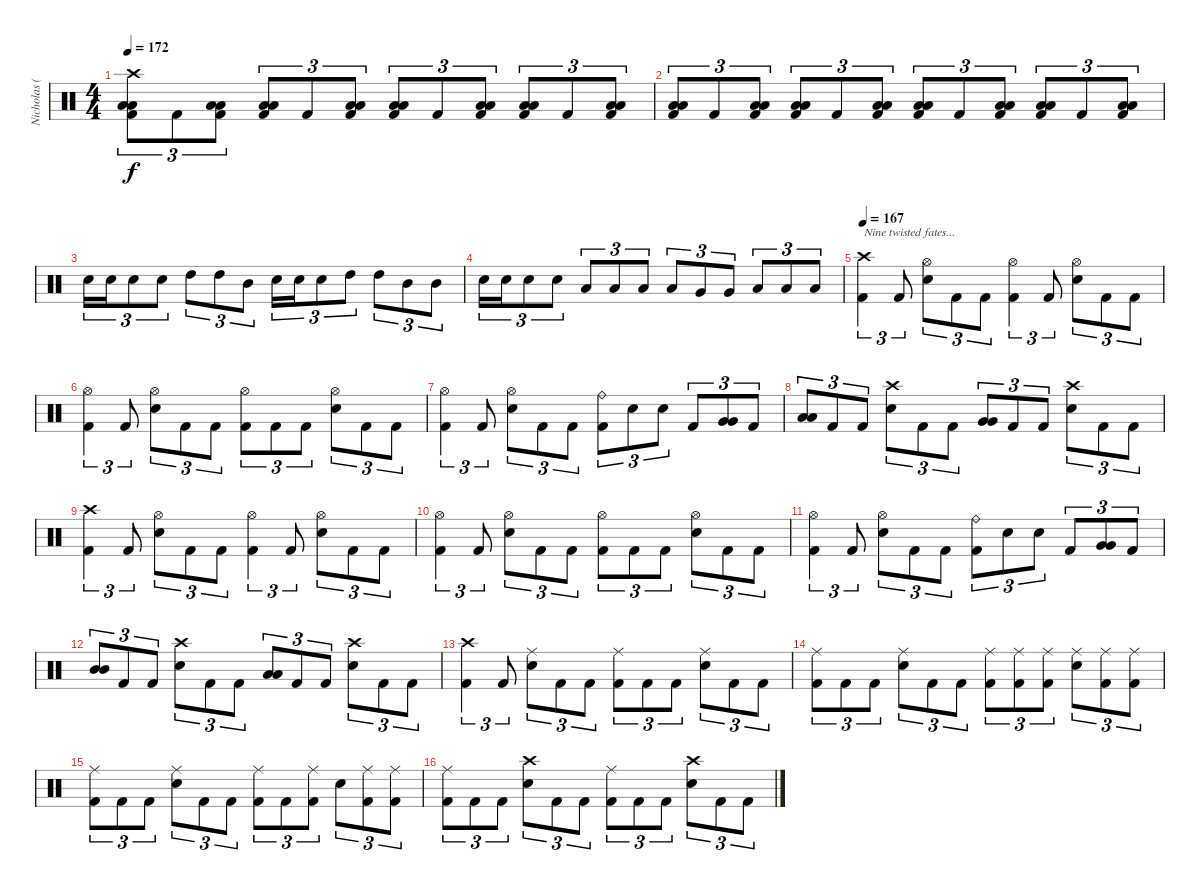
\track ("Nicholas (Drums)" "Nicholas (") {instrument percussion}
\staff {score}
\articulation defaults
\ts (4 4)
\tempo 172
\clef neutral
\ks c
("Crash high (hit)" "Low Tom (hit)" "Low Tom (hit)" "Kick (hit) 2").8{tu (3 2) dy f} "Kick (hit) 2".8{tu (3 2)} ("Low Floor Tom (hit)" "Low Floor Tom (hit)" "Kick (hit) 2").8{tu (3 2)} ("Low Floor Tom (hit)" "Low Floor Tom (hit)" "Kick (hit) 2").8{tu (3 2)} "Kick (hit) 2".8{tu (3 2)} ("Low Tom (hit)" "Low Tom (hit)" "Kick (hit) 2").8{tu (3 2)} ("Low Tom (hit)" "Low Tom (hit)" "Kick (hit) 2").8{tu (3 2)} "Kick (hit) 2".8{tu (3 2)} ("Low Floor Tom (hit)" "Low Floor Tom (hit)" "Kick (hit) 2").8{tu (3 2)} ("Low Floor Tom (hit)" "Low Floor Tom (hit)" "Kick (hit) 2").8{tu (3 2)} "Kick (hit) 2".8{tu (3 2)} ("Low Tom (hit)" "Low Tom (hit)" "Kick (hit) 2").8{tu (3 2)} |
("Low Tom (hit)" "Low Tom (hit)" "Kick (hit) 2").8{tu (3 2)} "Kick (hit) 2".8{tu (3 2)} ("Low Floor Tom (hit)" "Low Floor Tom (hit)" "Kick (hit) 2").8{tu (3 2)} ("Low Floor Tom (hit)" "Low Floor Tom (hit)" "Kick (hit) 2").8{tu (3 2)} "Kick (hit) 2".8{tu (3 2)} ("Low Tom (hit)" "Low Tom (hit)" "Kick (hit) 2").8{tu (3 2)} ("Low Tom (hit)" "Low Tom (hit)" "Kick (hit) 2").8{tu (3 2)} "Kick (hit) 2".8{tu (3 2)} ("Low Floor Tom (hit)" "Low Floor Tom (hit)" "Kick (hit) 2").8{tu (3 2)} ("Low Floor Tom (hit)" "Low Floor Tom (hit)" "Kick (hit) 2").8{tu (3 2)} "Kick (hit) 2".8{tu (3 2)} ("Low Tom (hit)" "Low Tom (hit)" "Kick (hit) 2").8{tu (3 2)} |
"Electric Snare (hit)".16{tu (3 2)} "Electric Snare (hit)".16{tu (3 2)} "Electric Snare (hit)".8{tu (3 2)} "Electric Snare (hit)".8{tu (3 2)} "High Tom (hit)".8{tu (3 2)} "High Tom (hit)".8{tu (3 2)} "Mid Tom (hit)".8{tu (3 2)} "Electric Snare (hit)".16{tu (3 2)} "Electric Snare (hit)".16{tu (3 2)} "Electric Snare (hit)".8{tu (3 2)} "High Tom (hit)".8{tu (3 2)} "High Tom (hit)".8{tu (3 2)} "Mid Tom (hit)".8{tu (3 2)} "Mid Tom (hit)".8{tu (3 2)} |
"Electric Snare (hit)".16{tu (3 2)} "Electric Snare (hit)".16{tu (3 2)} "Electric Snare (hit)".8{tu (3 2)} "Electric Snare (hit)".8{tu (3 2)} "Low Tom (hit)".8{tu (3 2)} "Low Tom (hit)".8{tu (3 2)} "Low Tom (hit)".8{tu (3 2)} "Low Tom (hit)".8{tu (3 2)} "Very Low Tom (hit)".8{tu (3 2)} "Very Low Tom (hit)".8{tu (3 2)} "Low Floor Tom (hit)".8{tu (3 2)} "Low Floor Tom (hit)".8{tu (3 2)} "Low Floor Tom (hit)".8{tu (3 2)} |
\tempo 167
("Crash high (hit)" "Kick (hit) 2").4{tu (3 2) txt "Nine twisted fates..."} "Kick (hit) 2".8{tu (3 2)} ("Hi-Hat (open)" "Electric Snare (hit)").8{tu (3 2)} "Kick (hit) 2".8{tu (3 2)} "Kick (hit) 2".8{tu (3 2)} ("Hi-Hat (open)" "Kick (hit) 2").4{tu (3 2)} "Kick (hit) 2".8{tu (3 2)} ("Hi-Hat (open)" "Electric Snare (hit)").8{tu (3 2)} "Kick (hit) 2".8{tu (3 2)} "Kick (hit) 2".8{tu (3 2)} |
("Hi-Hat (open)" "Kick (hit) 2").4{tu (3 2)} "Kick (hit) 2".8{tu (3 2)} ("Hi-Hat (open)" "Electric Snare (hit)").8{tu (3 2)} "Kick (hit) 2".8{tu (3 2)} "Kick (hit) 2".8{tu (3 2)} ("Hi-Hat (open)" "Kick (hit) 2").8{tu (3 2)} "Kick (hit) 2".8{tu (3 2)} "Kick (hit) 2".8{tu (3 2)} ("Hi-Hat (open)" "Electric Snare (hit)").8{tu (3 2)} "Kick (hit) 2".8{tu (3 2)} "Kick (hit) 2".8{tu (3 2)} |
("Hi-Hat (open)" "Kick (hit) 2").4{tu (3 2)} "Kick (hit) 2".8{tu (3 2)} ("Hi-Hat (open)" "Electric Snare (hit)").8{tu (3 2)} "Kick (hit) 2".8{tu (3 2)} "Kick (hit) 2".8{tu (3 2)} ("Ride (bell)" "Kick (hit) 2").8{tu (3 2)} "Electric Snare (hit)".8{tu (3 2)} "Electric Snare (hit)".8{tu (3 2)} "Kick (hit) 2".8{tu (3 2)} ("Very Low Tom (hit)" "Very Low Tom (hit)").8{tu (3 2)} "Kick (hit) 2".8{tu (3 2)} |
("Low Tom (hit)" "Low Tom (hit)").8{tu (3 2)} "Kick (hit) 2".8{tu (3 2)} "Kick (hit) 2".8{tu (3 2)} ("Crash high (hit)" "Electric Snare (hit)").8{tu (3 2)} "Kick (hit) 2".8{tu (3 2)} "Kick (hit) 2".8{tu (3 2)} ("Very Low Tom (hit)" "Very Low Tom (hit)").8{tu (3 2)} "Kick (hit) 2".8{tu (3 2)} "Kick (hit) 2".8{tu (3 2)} ("Crash high (hit)" "Electric Snare (hit)").8{tu (3 2)} "Kick (hit) 2".8{tu (3 2)} "Kick (hit) 2".8{tu (3 2)} |
("Crash high (hit)" "Kick (hit) 2").4{tu (3 2)} "Kick (hit) 2".8{tu (3 2)} ("Hi-Hat (open)" "Electric Snare (hit)").8{tu (3 2)} "Kick (hit) 2".8{tu (3 2)} "Kick (hit) 2".8{tu (3 2)} ("Hi-Hat (open)" "Kick (hit) 2").4{tu (3 2)} "Kick (hit) 2".8{tu (3 2)} ("Hi-Hat (open)" "Electric Snare (hit)").8{tu (3 2)} "Kick (hit) 2".8{tu (3 2)} "Kick (hit) 2".8{tu (3 2)} |
("Hi-Hat (open)" "Kick (hit) 2").4{tu (3 2)} "Kick (hit) 2".8{tu (3 2)} ("Hi-Hat (open)" "Electric Snare (hit)").8{tu (3 2)} "Kick (hit) 2".8{tu (3 2)} "Kick (hit) 2".8{tu (3 2)} ("Hi-Hat (open)" "Kick (hit) 2").8{tu (3 2)} "Kick (hit) 2".8{tu (3 2)} "Kick (hit) 2".8{tu (3 2)} ("Hi-Hat (open)" "Electric Snare (hit)").8{tu (3 2)} "Kick (hit) 2".8{tu (3 2)} "Kick (hit) 2".8{tu (3 2)} |
("Hi-Hat (open)" "Kick (hit) 2").4{tu (3 2)} "Kick (hit) 2".8{tu (3 2)} ("Hi-Hat (open)" "Electric Snare (hit)").8{tu (3 2)} "Kick (hit) 2".8{tu (3 2)} "Kick (hit) 2".8{tu (3 2)} ("Ride (bell)" "Kick (hit) 2").8{tu (3 2)} "Electric Snare (hit)".8{tu (3 2)} "Electric Snare (hit)".8{tu (3 2)} "Kick (hit) 2".8{tu (3 2)} ("Very Low Tom (hit)" "Very Low Tom (hit)").8{tu (3 2)} "Kick (hit) 2".8{tu (3 2)} |
("Mid Tom (hit)" "Mid Tom (hit)").8{tu (3 2)} "Kick (hit) 2".8{tu (3 2)} "Kick (hit) 2".8{tu (3 2)} ("Crash high (hit)" "Electric Snare (hit)").8{tu (3 2)} "Kick (hit) 2".8{tu (3 2)} "Kick (hit) 2".8{tu (3 2)} ("Low Tom (hit)" "Low Tom (hit)").8{tu (3 2)} "Kick (hit) 2".8{tu (3 2)} "Kick (hit) 2".8{tu (3 2)} ("Crash high (hit)" "Electric Snare (hit)").8{tu (3 2)} "Kick (hit) 2".8{tu (3 2)} "Kick (hit) 2".8{tu (3 2)} |
("Crash high (hit)" "Kick (hit) 2").4{tu (3 2)} "Kick (hit) 2".8{tu (3 2)} ("Ride (middle)" "Electric Snare (hit)").8{tu (3 2)} "Kick (hit) 2".8{tu (3 2)} "Kick (hit) 2".8{tu (3 2)} ("Ride (middle)" "Kick (hit) 2").8{tu (3 2)} "Kick (hit) 2".8{tu (3 2)} "Kick (hit) 2".8{tu (3 2)} ("Ride (middle)" "Electric Snare (hit)").8{tu (3 2)} "Kick (hit) 2".8{tu (3 2)} "Kick (hit) 2".8{tu (3 2)} |
("Ride (middle)" "Kick (hit) 2").8{tu (3 2)} "Kick (hit) 2".8{tu (3 2)} "Kick (hit) 2".8{tu (3 2)} ("Ride (middle)" "Electric Snare (hit)").8{tu (3 2)} "Kick (hit) 2".8{tu (3 2)} "Kick (hit) 2".8{tu (3 2)} ("Ride (middle)" "Kick (hit) 2").8{tu (3 2)} ("Ride (middle)" "Kick (hit) 2").8{tu (3 2)} ("Ride (middle)" "Kick (hit) 2").8{tu (3 2)} ("Ride (middle)" "Electric Snare (hit)").8{tu (3 2)} ("Ride (middle)" "Kick (hit) 2").8{tu (3 2)} ("Ride (middle)" "Kick (hit) 2").8{tu (3 2)} |
("Ride (middle)" "Kick (hit) 2").8{tu (3 2)} "Kick (hit) 2".8{tu (3 2)} "Kick (hit) 2".8{tu (3 2)} ("Ride (middle)" "Electric Snare (hit)").8{tu (3 2)} "Kick (hit) 2".8{tu (3 2)} "Kick (hit) 2".8{tu (3 2)} ("Ride (middle)" "Kick (hit) 2").8{tu (3 2)} "Kick (hit) 2".8{tu (3 2)} ("Ride (middle)" "Kick (hit) 2").8{tu (3 2)} "Electric Snare (hit)".8{tu (3 2)} ("Ride (middle)" "Kick (hit) 2").8{tu (3 2)} ("Ride (middle)" "Kick (hit) 2").8{tu (3 2)} |
("Ride (middle)" "Kick (hit) 2").8{tu (3 2)} "Kick (hit) 2".8{tu (3 2)} "Kick (hit) 2".8{tu (3 2)} ("Crash high (hit)" "Electric Snare (hit)").8{tu (3 2)} "Kick (hit) 2".8{tu (3 2)} "Kick (hit) 2".8{tu (3 2)} ("Ride (middle)" "Kick (hit) 2").8{tu (3 2)} "Kick (hit) 2".8{tu (3 2)} "Kick (hit) 2".8{tu (3 2)} ("Crash high (hit)" "Electric Snare (hit)").8{tu (3 2)} "Kick (hit) 2".8{tu (3 2)} "Kick (hit) 2".8{tu (3 2)}
